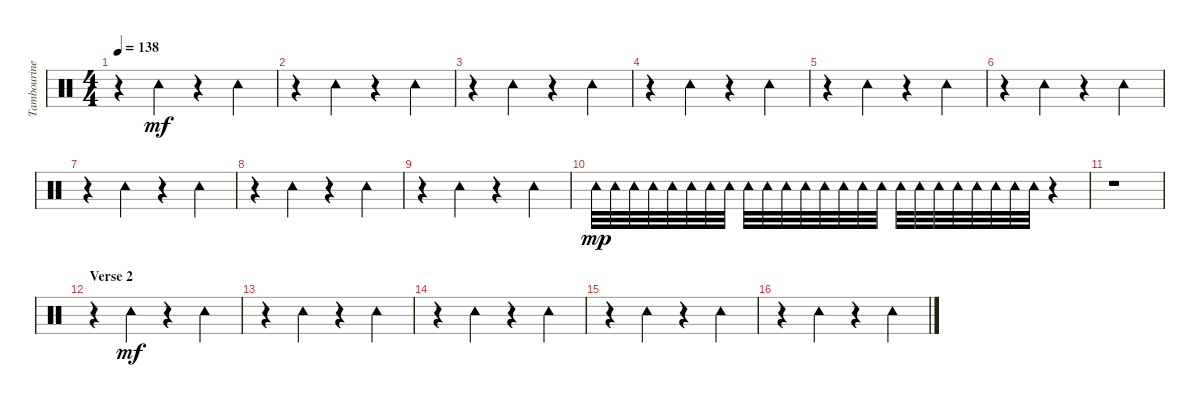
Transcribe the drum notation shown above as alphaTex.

\track ("Tambourine" "Tambourine") {instrument percussion}
\staff {score}
\articulation defaults
\ts (4 4)
\tempo 138
\clef neutral
\ks c
r.4{dy mf} "Tambourine (hit)".4 r.4 "Tambourine (hit)".4 |
r.4 "Tambourine (hit)".4 r.4 "Tambourine (hit)".4 |
r.4 "Tambourine (hit)".4 r.4 "Tambourine (hit)".4 |
r.4 "Tambourine (hit)".4 r.4 "Tambourine (hit)".4 |
r.4 "Tambourine (hit)".4 r.4 "Tambourine (hit)".4 |
r.4 "Tambourine (hit)".4 r.4 "Tambourine (hit)".4 |
r.4 "Tambourine (hit)".4 r.4 "Tambourine (hit)".4 |
r.4 "Tambourine (hit)".4 r.4 "Tambourine (hit)".4 |
r.4 "Tambourine (hit)".4 r.4 "Tambourine (hit)".4 |
"Tambourine (hit)".32{dy mp} "Tambourine (hit)".32 "Tambourine (hit)".32 "Tambourine (hit)".32 "Tambourine (hit)".32 "Tambourine (hit)".32 "Tambourine (hit)".32 "Tambourine (hit)".32 "Tambourine (hit)".32 "Tambourine (hit)".32 "Tambourine (hit)".32 "Tambourine (hit)".32 "Tambourine (hit)".32 "Tambourine (hit)".32 "Tambourine (hit)".32 "Tambourine (hit)".32 "Tambourine (hit)".32 "Tambourine (hit)".32 "Tambourine (hit)".32 "Tambourine (hit)".32 "Tambourine (hit)".32 "Tambourine (hit)".32 "Tambourine (hit)".32 "Tambourine (hit)".32 r.4 |
r.1 |
\section ("" "Verse 2")
r.4 "Tambourine (hit)".4{dy mf} r.4 "Tambourine (hit)".4 |
r.4 "Tambourine (hit)".4 r.4 "Tambourine (hit)".4 |
r.4 "Tambourine (hit)".4 r.4 "Tambourine (hit)".4 |
r.4 "Tambourine (hit)".4 r.4 "Tambourine (hit)".4 |
r.4 "Tambourine (hit)".4 r.4 "Tambourine (hit)".4
